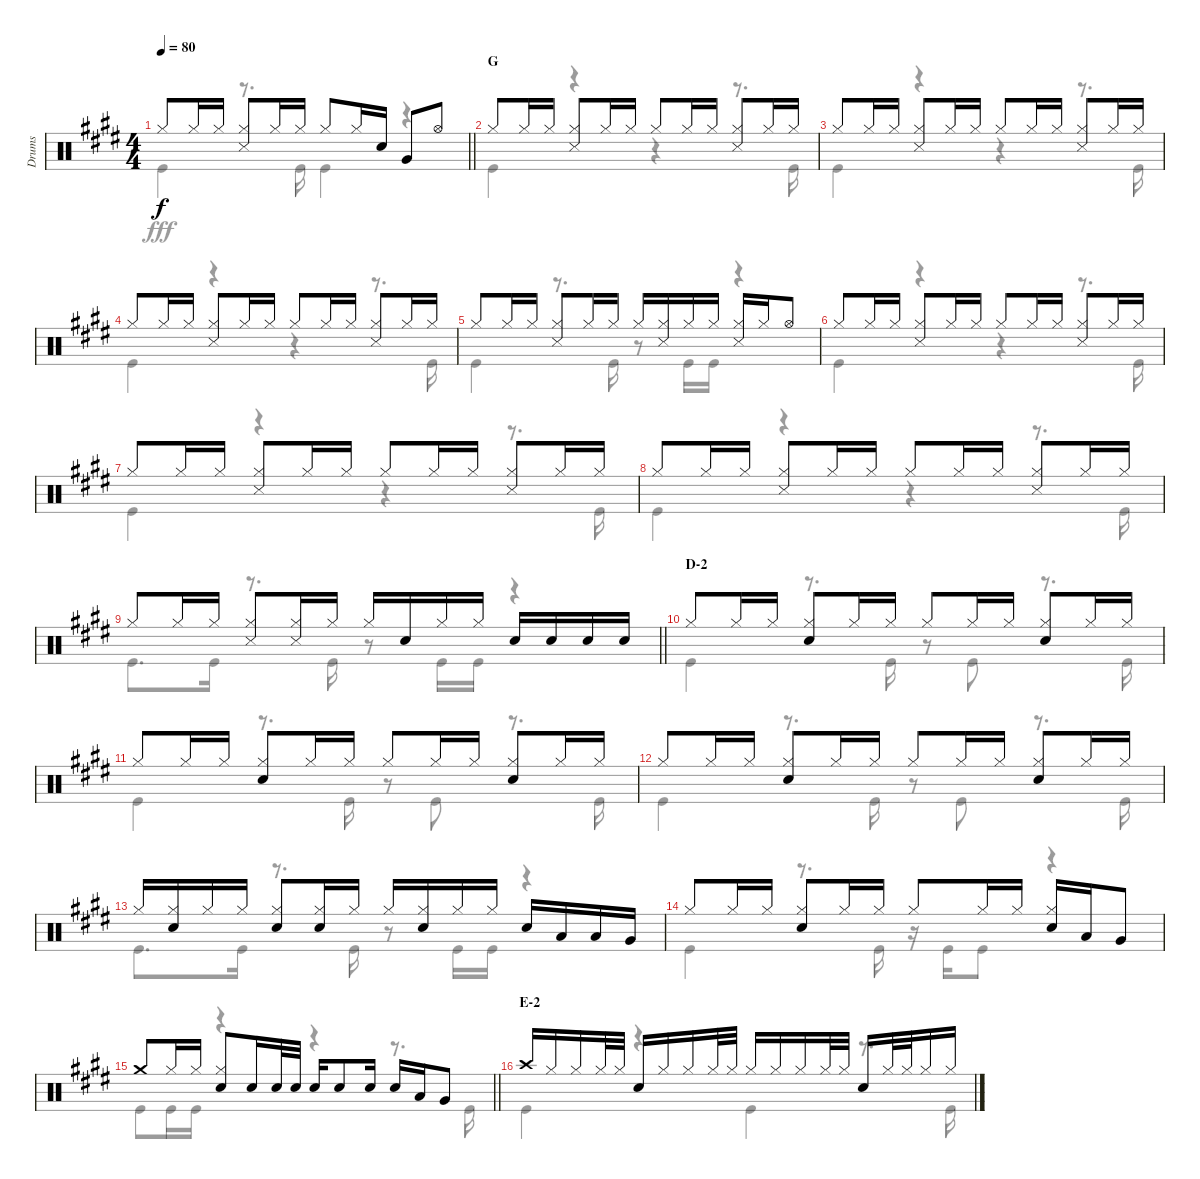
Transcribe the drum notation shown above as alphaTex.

\track ("Drums" "Drums") {instrument percussion}
\staff {score}
\articulation defaults
\voice
\ts (4 4)
\tempo 80
\clef neutral
\barLineRight lightlight
\ks e "Hi-Hat (closed)".8{dy f} "Hi-Hat (closed)".16 "Hi-Hat (closed)".16
("Hi-Hat (closed)" "Snare (side stick) 3").8 "Hi-Hat (closed)".16 "Hi-Hat (closed)".16 "Hi-Hat (closed)".8 "Hi-Hat (closed)".16 "Snare (hit) 2".16 "Very Low Tom (hit)".8 "Hi-Hat (open)".8 |
\section ("" "G")
"Hi-Hat (closed)".8 "Hi-Hat (closed)".16 "Hi-Hat (closed)".16 ("Hi-Hat (closed)" "Snare (side stick) 3").8 "Hi-Hat (closed)".16 "Hi-Hat (closed)".16 "Hi-Hat (closed)".8 "Hi-Hat (closed)".16 "Hi-Hat (closed)".16 ("Hi-Hat (closed)" "Snare (side stick) 3").8 "Hi-Hat (closed)".16 "Hi-Hat (closed)".16 |
"Hi-Hat (closed)".8 "Hi-Hat (closed)".16 "Hi-Hat (closed)".16 ("Hi-Hat (closed)" "Snare (side stick) 3").8 "Hi-Hat (closed)".16 "Hi-Hat (closed)".16 "Hi-Hat (closed)".8 "Hi-Hat (closed)".16 "Hi-Hat (closed)".16 ("Hi-Hat (closed)" "Snare (side stick) 3").8 "Hi-Hat (closed)".16 "Hi-Hat (closed)".16 |
"Hi-Hat (closed)".8 "Hi-Hat (closed)".16 "Hi-Hat (closed)".16 ("Hi-Hat (closed)" "Snare (side stick) 3").8 "Hi-Hat (closed)".16 "Hi-Hat (closed)".16 "Hi-Hat (closed)".8 "Hi-Hat (closed)".16 "Hi-Hat (closed)".16 ("Hi-Hat (closed)" "Snare (side stick) 3").8 "Hi-Hat (closed)".16 "Hi-Hat (closed)".16 |
"Hi-Hat (closed)".8 "Hi-Hat (closed)".16 "Hi-Hat (closed)".16 ("Hi-Hat (closed)" "Snare (side stick) 3").8 "Hi-Hat (closed)".16 "Hi-Hat (closed)".16 "Hi-Hat (closed)".16 ("Hi-Hat (closed)" "Snare (side stick) 3").16 "Hi-Hat (closed)".16 "Hi-Hat (closed)".16 ("Hi-Hat (closed)" "Snare (side stick) 3").16 "Hi-Hat (closed)".16 "Hi-Hat (open)".8 |
"Hi-Hat (closed)".8 "Hi-Hat (closed)".16 "Hi-Hat (closed)".16 ("Hi-Hat (closed)" "Snare (side stick) 3").8 "Hi-Hat (closed)".16 "Hi-Hat (closed)".16 "Hi-Hat (closed)".8 "Hi-Hat (closed)".16 "Hi-Hat (closed)".16 ("Hi-Hat (closed)" "Snare (side stick) 3").8 "Hi-Hat (closed)".16 "Hi-Hat (closed)".16 |
"Hi-Hat (closed)".8 "Hi-Hat (closed)".16 "Hi-Hat (closed)".16 ("Hi-Hat (closed)" "Snare (side stick) 3").8 "Hi-Hat (closed)".16 "Hi-Hat (closed)".16 "Hi-Hat (closed)".8 "Hi-Hat (closed)".16 "Hi-Hat (closed)".16 ("Hi-Hat (closed)" "Snare (side stick) 3").8 "Hi-Hat (closed)".16 "Hi-Hat (closed)".16 |
"Hi-Hat (closed)".8 "Hi-Hat (closed)".16 "Hi-Hat (closed)".16 ("Hi-Hat (closed)" "Snare (side stick) 3").8 "Hi-Hat (closed)".16 "Hi-Hat (closed)".16 "Hi-Hat (closed)".8 "Hi-Hat (closed)".16 "Hi-Hat (closed)".16 ("Hi-Hat (closed)" "Snare (side stick) 3").8 "Hi-Hat (closed)".16 "Hi-Hat (closed)".16 |
\barLineRight lightlight "Hi-Hat (closed)".8 "Hi-Hat (closed)".16 "Hi-Hat (closed)".16
("Hi-Hat (closed)" "Snare (side stick) 3").8 ("Hi-Hat (closed)" "Snare (side stick) 3").16 "Hi-Hat (closed)".16 "Hi-Hat (closed)".16 "Snare (hit) 2".16 "Hi-Hat (closed)".16 "Hi-Hat (closed)".16 "Snare (hit) 2".16 "Snare (hit) 2".16 "Snare (hit) 2".16 "Snare (hit) 2".16 |
\section ("" "D-2")
"Hi-Hat (closed)".8 "Hi-Hat (closed)".16 "Hi-Hat (closed)".16 ("Hi-Hat (closed)" "Snare (hit) 2").8 "Hi-Hat (closed)".16 "Hi-Hat (closed)".16 "Hi-Hat (closed)".8 "Hi-Hat (closed)".16 "Hi-Hat (closed)".16 ("Hi-Hat (closed)" "Snare (hit) 2").8 "Hi-Hat (closed)".16 "Hi-Hat (closed)".16 |
"Hi-Hat (closed)".8 "Hi-Hat (closed)".16 "Hi-Hat (closed)".16 ("Hi-Hat (closed)" "Snare (hit) 2").8 "Hi-Hat (closed)".16 "Hi-Hat (closed)".16 "Hi-Hat (closed)".8 "Hi-Hat (closed)".16 "Hi-Hat (closed)".16 ("Hi-Hat (closed)" "Snare (hit) 2").8 "Hi-Hat (closed)".16 "Hi-Hat (closed)".16 |
"Hi-Hat (closed)".8 "Hi-Hat (closed)".16 "Hi-Hat (closed)".16 ("Hi-Hat (closed)" "Snare (hit) 2").8 "Hi-Hat (closed)".16 "Hi-Hat (closed)".16 "Hi-Hat (closed)".8 "Hi-Hat (closed)".16 "Hi-Hat (closed)".16 ("Hi-Hat (closed)" "Snare (hit) 2").8 "Hi-Hat (closed)".16 "Hi-Hat (closed)".16 |
"Hi-Hat (closed)".16 ("Hi-Hat (closed)" "Snare (hit) 2").16 "Hi-Hat (closed)".16 "Hi-Hat (closed)".16 ("Hi-Hat (closed)" "Snare (hit) 2").8 ("Hi-Hat (closed)" "Snare (hit) 2").16 "Hi-Hat (closed)".16 "Hi-Hat (closed)".16 ("Hi-Hat (closed)" "Snare (hit) 2").16 "Hi-Hat (closed)".16 "Hi-Hat (closed)".16 "Snare (hit) 2".16 "Low Tom (hit)".16 "Low Tom (hit)".16 "Very Low Tom (hit)".16 |
"Hi-Hat (closed)".8 "Hi-Hat (closed)".16 "Hi-Hat (closed)".16 ("Hi-Hat (closed)" "Snare (hit) 2").8 "Hi-Hat (closed)".16 "Hi-Hat (closed)".16 "Hi-Hat (closed)".8 "Hi-Hat (closed)".16 "Hi-Hat (closed)".16 ("Hi-Hat (closed)" "Snare (hit) 2").16 "Low Tom (hit)".16 "Very Low Tom (hit)".8 |
\barLineRight lightlight "Crash medium (hit)".8 "Hi-Hat (closed)".16 "Hi-Hat (closed)".16
("Hi-Hat (closed)" "Snare (hit) 2").8 "Snare (hit) 2".16 "Snare (hit) 2".32 "Snare (hit) 2".32 "Snare (hit) 2".16 "Snare (hit) 2".8 "Snare (hit) 2".16 "Snare (hit) 2".16 "Low Tom (hit)".16 "Very Low Tom (hit)".8 |
\section ("" "E-2")
"Crash high (hit)".16 "Hi-Hat (closed)".16 "Hi-Hat (closed)".16 "Hi-Hat (closed)".32 "Hi-Hat (closed)".32 "Snare (hit) 2".16 "Hi-Hat (closed)".16 "Hi-Hat (closed)".16 "Hi-Hat (closed)".32 "Hi-Hat (closed)".32 "Hi-Hat (closed)".16 "Hi-Hat (closed)".16 "Hi-Hat (closed)".16 "Hi-Hat (closed)".32 "Hi-Hat (closed)".32 "Snare (hit) 2".16 "Hi-Hat (closed)".32 "Hi-Hat (closed)".32 "Hi-Hat (closed)".16 "Hi-Hat (closed)".16
\voice
\clef neutral
\ottava regular
\simile none
\barLineRight lightlight
\ks e "Kick (hit)".4{dy fff}
r.8{d} "Kick (hit)".16 "Kick (hit)".4 r.4 |
"Kick (hit)".4 r.4 r.4 r.8{d} "Kick (hit)".16 |
"Kick (hit)".4 r.4 r.4 r.8{d} "Kick (hit)".16 |
"Kick (hit)".4 r.4 r.4 r.8{d} "Kick (hit)".16 |
"Kick (hit)".4 r.8{d} "Kick (hit)".16 r.8 "Kick (hit)".16 "Kick (hit)".16 r.4 |
"Kick (hit)".4 r.4 r.4 r.8{d} "Kick (hit)".16 |
"Kick (hit)".4 r.4 r.4 r.8{d} "Kick (hit)".16 |
"Kick (hit)".4 r.4 r.4 r.8{d} "Kick (hit)".16 |
\barLineRight lightlight "Kick (hit)".8{d} "Kick (hit)".16
r.8{d} "Kick (hit)".16 r.8 "Kick (hit)".16 "Kick (hit)".16 r.4 |
"Kick (hit)".4 r.8{d} "Kick (hit)".16 r.8 "Kick (hit)".8 r.8{d} "Kick (hit)".16 |
"Kick (hit)".4 r.8{d} "Kick (hit)".16 r.8 "Kick (hit)".8 r.8{d} "Kick (hit)".16 |
"Kick (hit)".4 r.8{d} "Kick (hit)".16 r.8 "Kick (hit)".8 r.8{d} "Kick (hit)".16 |
"Kick (hit)".8{d} "Kick (hit)".16 r.8{d} "Kick (hit)".16 r.8 "Kick (hit)".16 "Kick (hit)".16 r.4 |
"Kick (hit)".4 r.8{d} "Kick (hit)".16 r.16 "Kick (hit)".16 "Kick (hit)".8 r.4 |
\barLineRight lightlight "Kick (hit)".8 "Kick (hit)".16 "Kick (hit)".16
r.4 r.4 r.8{d} "Kick (hit)".16 |
"Kick (hit)".4 r.4 "Kick (hit)".4 r.8{d} "Kick (hit)".16
